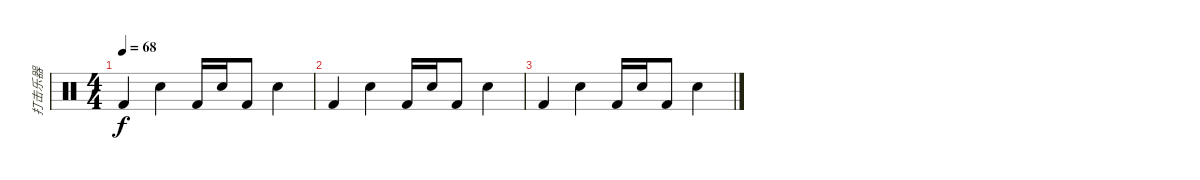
\track ("打击乐器" "打击乐器") {instrument percussion}
\staff {score}
\articulation defaults
\ts (4 4)
\tempo 68
\clef neutral
\ks c "Kick (hit) 2".4{dy f} "Snare (hit) 2".4 "Kick (hit) 2".16 "Snare (hit) 2".16 "Kick (hit) 2".8 "Snare (hit) 2".4
|
"Kick (hit) 2".4 "Snare (hit) 2".4 "Kick (hit) 2".16 "Snare (hit) 2".16 "Kick (hit) 2".8 "Snare (hit) 2".4 |
"Kick (hit) 2".4 "Snare (hit) 2".4 "Kick (hit) 2".16 "Snare (hit) 2".16 "Kick (hit) 2".8 "Snare (hit) 2".4
